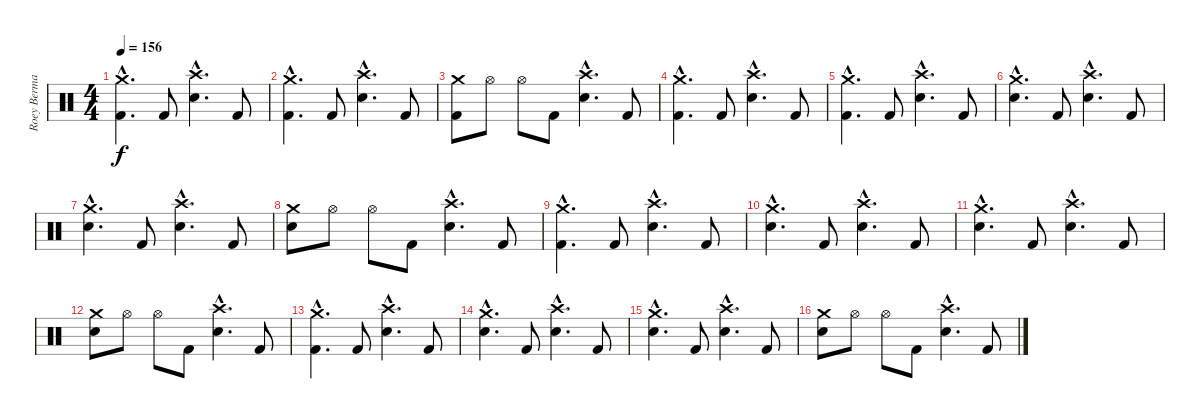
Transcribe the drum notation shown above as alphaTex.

\track ("Roey Berman" "Roey Berma") {instrument percussion}
\staff {score}
\articulation defaults
\ts (4 4)
\tempo 156
\clef neutral
\ks c
("Crash medium (hit)"{hac} "Kick (hit) 2"{hac}).4{d dy f} "Kick (hit) 2".8 ("Crash high (hit)"{hac} "Electric Snare (hit)"{hac}).4{d} "Kick (hit) 2".8 |
("Crash medium (hit)"{hac} "Kick (hit) 2"{hac}).4{d} "Kick (hit) 2".8 ("Crash high (hit)"{hac} "Electric Snare (hit)"{hac}).4{d} "Kick (hit) 2".8 |
("Crash medium (hit)" "Kick (hit) 2").8 "Hi-Hat (open)".8 "Hi-Hat (open)".8 "Kick (hit) 2".8 ("Crash high (hit)"{hac} "Electric Snare (hit)"{hac}).4{d} "Kick (hit) 2".8 |
("Crash medium (hit)"{hac} "Kick (hit) 2"{hac}).4{d} "Kick (hit) 2".8 ("Crash high (hit)"{hac} "Electric Snare (hit)"{hac}).4{d} "Kick (hit) 2".8 |
\section ("" "")
("Crash medium (hit)"{hac} "Kick (hit) 2"{hac}).4{d} "Kick (hit) 2".8 ("Crash high (hit)"{hac} "Electric Snare (hit)"{hac}).4{d} "Kick (hit) 2".8 |
("Crash medium (hit)"{hac} "Electric Snare (hit)"{hac}).4{d} "Kick (hit) 2".8 ("Crash high (hit)"{hac} "Electric Snare (hit)"{hac}).4{d} "Kick (hit) 2".8 |
("Crash medium (hit)"{hac} "Electric Snare (hit)"{hac}).4{d} "Kick (hit) 2".8 ("Crash high (hit)"{hac} "Electric Snare (hit)"{hac}).4{d} "Kick (hit) 2".8 |
("Crash medium (hit)" "Electric Snare (hit)").8 "Hi-Hat (open)".8 "Hi-Hat (open)".8 "Kick (hit) 2".8 ("Crash high (hit)"{hac} "Electric Snare (hit)"{hac}).4{d} "Kick (hit) 2".8 |
("Crash medium (hit)"{hac} "Kick (hit) 2"{hac}).4{d} "Kick (hit) 2".8 ("Crash high (hit)"{hac} "Electric Snare (hit)"{hac}).4{d} "Kick (hit) 2".8 |
("Crash medium (hit)"{hac} "Electric Snare (hit)"{hac}).4{d} "Kick (hit) 2".8 ("Crash high (hit)"{hac} "Electric Snare (hit)"{hac}).4{d} "Kick (hit) 2".8 |
("Crash medium (hit)"{hac} "Electric Snare (hit)"{hac}).4{d} "Kick (hit) 2".8 ("Crash high (hit)"{hac} "Electric Snare (hit)"{hac}).4{d} "Kick (hit) 2".8 |
("Crash medium (hit)" "Electric Snare (hit)").8 "Hi-Hat (open)".8 "Hi-Hat (open)".8 "Kick (hit) 2".8 ("Crash high (hit)"{hac} "Electric Snare (hit)"{hac}).4{d} "Kick (hit) 2".8 |
("Crash medium (hit)"{hac} "Kick (hit) 2"{hac}).4{d} "Kick (hit) 2".8 ("Crash high (hit)"{hac} "Electric Snare (hit)"{hac}).4{d} "Kick (hit) 2".8 |
("Crash medium (hit)"{hac} "Electric Snare (hit)"{hac}).4{d} "Kick (hit) 2".8 ("Crash high (hit)"{hac} "Electric Snare (hit)"{hac}).4{d} "Kick (hit) 2".8 |
("Crash medium (hit)"{hac} "Electric Snare (hit)"{hac}).4{d} "Kick (hit) 2".8 ("Crash high (hit)"{hac} "Electric Snare (hit)"{hac}).4{d} "Kick (hit) 2".8 |
("Crash medium (hit)" "Electric Snare (hit)").8 "Hi-Hat (open)".8 "Hi-Hat (open)".8 "Kick (hit) 2".8 ("Crash high (hit)"{hac} "Electric Snare (hit)"{hac}).4{d} "Kick (hit) 2".8
